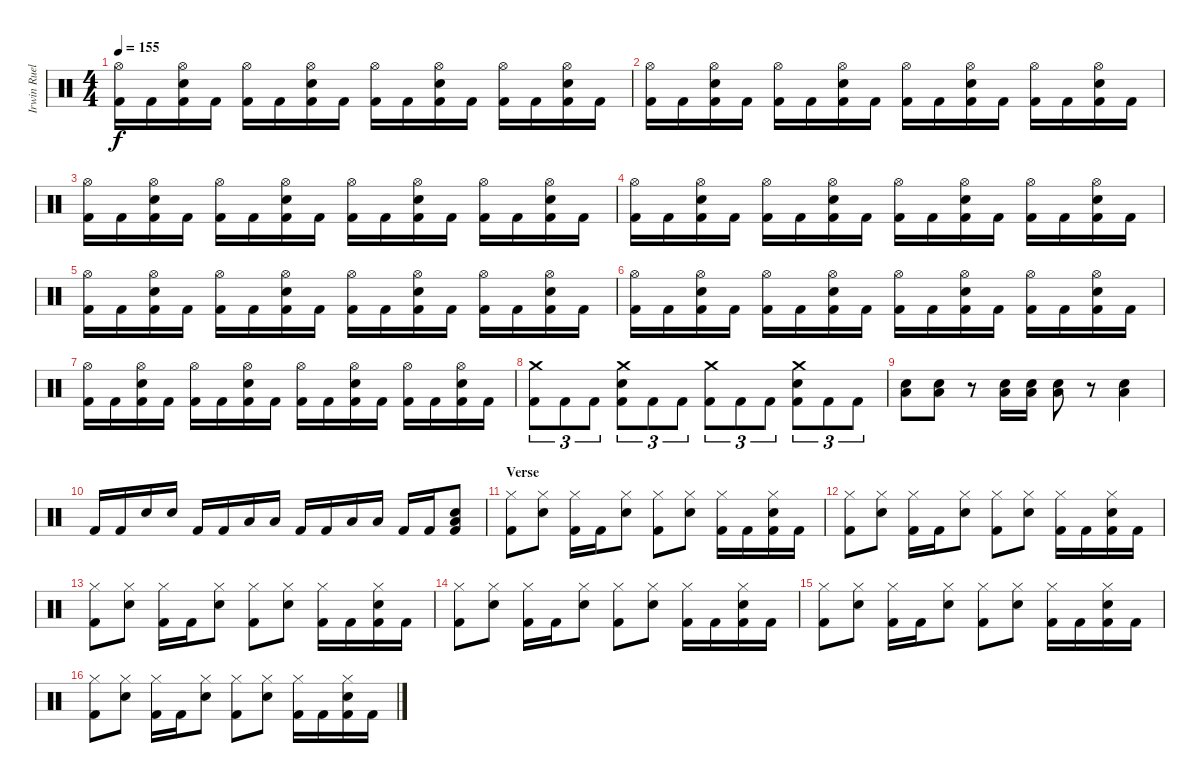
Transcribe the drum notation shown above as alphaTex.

\track ("Irwin Ruelas" "Irwin Ruel") {instrument percussion}
\staff {score}
\articulation defaults
\ts (4 4)
\tempo 155
\clef neutral
\ks c
("Hi-Hat (open)" "Kick (hit) 2").16{dy f} "Kick (hit) 2".16 ("Hi-Hat (open)" "Electric Snare (hit)" "Kick (hit) 2").16 "Kick (hit) 2".16 ("Hi-Hat (open)" "Kick (hit) 2").16 "Kick (hit) 2".16 ("Hi-Hat (open)" "Electric Snare (hit)" "Kick (hit) 2").16 "Kick (hit) 2".16 ("Hi-Hat (open)" "Kick (hit) 2").16 "Kick (hit) 2".16 ("Hi-Hat (open)" "Electric Snare (hit)" "Kick (hit) 2").16 "Kick (hit) 2".16 ("Hi-Hat (open)" "Kick (hit) 2").16 "Kick (hit) 2".16 ("Hi-Hat (open)" "Electric Snare (hit)" "Kick (hit) 2").16 "Kick (hit) 2".16 |
("Hi-Hat (open)" "Kick (hit) 2").16 "Kick (hit) 2".16 ("Hi-Hat (open)" "Electric Snare (hit)" "Kick (hit) 2").16 "Kick (hit) 2".16 ("Hi-Hat (open)" "Kick (hit) 2").16 "Kick (hit) 2".16 ("Hi-Hat (open)" "Electric Snare (hit)" "Kick (hit) 2").16 "Kick (hit) 2".16 ("Hi-Hat (open)" "Kick (hit) 2").16 "Kick (hit) 2".16 ("Hi-Hat (open)" "Electric Snare (hit)" "Kick (hit) 2").16 "Kick (hit) 2".16 ("Hi-Hat (open)" "Kick (hit) 2").16 "Kick (hit) 2".16 ("Hi-Hat (open)" "Electric Snare (hit)" "Kick (hit) 2").16 "Kick (hit) 2".16 |
("Hi-Hat (open)" "Kick (hit) 2").16 "Kick (hit) 2".16 ("Hi-Hat (open)" "Electric Snare (hit)" "Kick (hit) 2").16 "Kick (hit) 2".16 ("Hi-Hat (open)" "Kick (hit) 2").16 "Kick (hit) 2".16 ("Hi-Hat (open)" "Electric Snare (hit)" "Kick (hit) 2").16 "Kick (hit) 2".16 ("Hi-Hat (open)" "Kick (hit) 2").16 "Kick (hit) 2".16 ("Hi-Hat (open)" "Electric Snare (hit)" "Kick (hit) 2").16 "Kick (hit) 2".16 ("Hi-Hat (open)" "Kick (hit) 2").16 "Kick (hit) 2".16 ("Hi-Hat (open)" "Electric Snare (hit)" "Kick (hit) 2").16 "Kick (hit) 2".16 |
("Hi-Hat (open)" "Kick (hit) 2").16 "Kick (hit) 2".16 ("Hi-Hat (open)" "Electric Snare (hit)" "Kick (hit) 2").16 "Kick (hit) 2".16 ("Hi-Hat (open)" "Kick (hit) 2").16 "Kick (hit) 2".16 ("Hi-Hat (open)" "Electric Snare (hit)" "Kick (hit) 2").16 "Kick (hit) 2".16 ("Hi-Hat (open)" "Kick (hit) 2").16 "Kick (hit) 2".16 ("Hi-Hat (open)" "Electric Snare (hit)" "Kick (hit) 2").16 "Kick (hit) 2".16 ("Hi-Hat (open)" "Kick (hit) 2").16 "Kick (hit) 2".16 ("Hi-Hat (open)" "Electric Snare (hit)" "Kick (hit) 2").16 "Kick (hit) 2".16 |
("Hi-Hat (open)" "Kick (hit) 2").16 "Kick (hit) 2".16 ("Hi-Hat (open)" "Electric Snare (hit)" "Kick (hit) 2").16 "Kick (hit) 2".16 ("Hi-Hat (open)" "Kick (hit) 2").16 "Kick (hit) 2".16 ("Hi-Hat (open)" "Electric Snare (hit)" "Kick (hit) 2").16 "Kick (hit) 2".16 ("Hi-Hat (open)" "Kick (hit) 2").16 "Kick (hit) 2".16 ("Hi-Hat (open)" "Electric Snare (hit)" "Kick (hit) 2").16 "Kick (hit) 2".16 ("Hi-Hat (open)" "Kick (hit) 2").16 "Kick (hit) 2".16 ("Hi-Hat (open)" "Electric Snare (hit)" "Kick (hit) 2").16 "Kick (hit) 2".16 |
("Hi-Hat (open)" "Kick (hit) 2").16 "Kick (hit) 2".16 ("Hi-Hat (open)" "Electric Snare (hit)" "Kick (hit) 2").16 "Kick (hit) 2".16 ("Hi-Hat (open)" "Kick (hit) 2").16 "Kick (hit) 2".16 ("Hi-Hat (open)" "Electric Snare (hit)" "Kick (hit) 2").16 "Kick (hit) 2".16 ("Hi-Hat (open)" "Kick (hit) 2").16 "Kick (hit) 2".16 ("Hi-Hat (open)" "Electric Snare (hit)" "Kick (hit) 2").16 "Kick (hit) 2".16 ("Hi-Hat (open)" "Kick (hit) 2").16 "Kick (hit) 2".16 ("Hi-Hat (open)" "Electric Snare (hit)" "Kick (hit) 2").16 "Kick (hit) 2".16 |
("Hi-Hat (open)" "Kick (hit) 2").16 "Kick (hit) 2".16 ("Hi-Hat (open)" "Electric Snare (hit)" "Kick (hit) 2").16 "Kick (hit) 2".16 ("Hi-Hat (open)" "Kick (hit) 2").16 "Kick (hit) 2".16 ("Hi-Hat (open)" "Electric Snare (hit)" "Kick (hit) 2").16 "Kick (hit) 2".16 ("Hi-Hat (open)" "Kick (hit) 2").16 "Kick (hit) 2".16 ("Hi-Hat (open)" "Electric Snare (hit)" "Kick (hit) 2").16 "Kick (hit) 2".16 ("Hi-Hat (open)" "Kick (hit) 2").16 "Kick (hit) 2".16 ("Hi-Hat (open)" "Electric Snare (hit)" "Kick (hit) 2").16 "Kick (hit) 2".16 |
("Crash medium (hit)" "Kick (hit) 2").8{tu (3 2)} "Kick (hit) 2".8{tu (3 2)} "Kick (hit) 2".8{tu (3 2)} ("Crash medium (hit)" "Electric Snare (hit)" "Kick (hit) 2").8{tu (3 2)} "Kick (hit) 2".8{tu (3 2)} "Kick (hit) 2".8{tu (3 2)} ("Crash medium (hit)" "Kick (hit) 2").8{tu (3 2)} "Kick (hit) 2".8{tu (3 2)} "Kick (hit) 2".8{tu (3 2)} ("Crash medium (hit)" "Electric Snare (hit)" "Kick (hit) 2").8{tu (3 2)} "Kick (hit) 2".8{tu (3 2)} "Kick (hit) 2".8{tu (3 2)} |
("Electric Snare (hit)" "Low Floor Tom (hit)").8 ("Electric Snare (hit)" "Low Floor Tom (hit)").8 r.8 ("Electric Snare (hit)" "Low Floor Tom (hit)").16 ("Electric Snare (hit)" "Low Floor Tom (hit)").16 ("Electric Snare (hit)" "Low Floor Tom (hit)").8 r.8 ("Electric Snare (hit)" "Low Floor Tom (hit)").4 |
"Kick (hit) 2".16 "Kick (hit) 2".16 "Electric Snare (hit)".16 "Electric Snare (hit)".16 "Kick (hit) 2".16 "Kick (hit) 2".16 "Low Tom (hit)".16 "Low Tom (hit)".16 "Kick (hit) 2".16 "Kick (hit) 2".16 "Low Floor Tom (hit)".16 "Low Floor Tom (hit)".16 "Kick (hit) 2".16 "Kick (hit) 2".16 ("Electric Snare (hit)" "Low Floor Tom (hit)" "Kick (hit) 2").8 |
\section ("" "Verse")
("Hi-Hat (closed)" "Kick (hit) 2").8 ("Hi-Hat (closed)" "Electric Snare (hit)").8 ("Hi-Hat (closed)" "Kick (hit) 2").16 "Kick (hit) 2".16 ("Hi-Hat (closed)" "Electric Snare (hit)").8 ("Hi-Hat (closed)" "Kick (hit) 2").8 ("Hi-Hat (closed)" "Electric Snare (hit)").8 ("Hi-Hat (closed)" "Kick (hit) 2").16 "Kick (hit) 2".16 ("Hi-Hat (closed)" "Electric Snare (hit)" "Kick (hit) 2").16 "Kick (hit) 2".16 |
("Hi-Hat (closed)" "Kick (hit) 2").8 ("Hi-Hat (closed)" "Electric Snare (hit)").8 ("Hi-Hat (closed)" "Kick (hit) 2").16 "Kick (hit) 2".16 ("Hi-Hat (closed)" "Electric Snare (hit)").8 ("Hi-Hat (closed)" "Kick (hit) 2").8 ("Hi-Hat (closed)" "Electric Snare (hit)").8 ("Hi-Hat (closed)" "Kick (hit) 2").16 "Kick (hit) 2".16 ("Hi-Hat (closed)" "Electric Snare (hit)" "Kick (hit) 2").16 "Kick (hit) 2".16 |
("Hi-Hat (closed)" "Kick (hit) 2").8 ("Hi-Hat (closed)" "Electric Snare (hit)").8 ("Hi-Hat (closed)" "Kick (hit) 2").16 "Kick (hit) 2".16 ("Hi-Hat (closed)" "Electric Snare (hit)").8 ("Hi-Hat (closed)" "Kick (hit) 2").8 ("Hi-Hat (closed)" "Electric Snare (hit)").8 ("Hi-Hat (closed)" "Kick (hit) 2").16 "Kick (hit) 2".16 ("Hi-Hat (closed)" "Electric Snare (hit)" "Kick (hit) 2").16 "Kick (hit) 2".16 |
("Hi-Hat (closed)" "Kick (hit) 2").8 ("Hi-Hat (closed)" "Electric Snare (hit)").8 ("Hi-Hat (closed)" "Kick (hit) 2").16 "Kick (hit) 2".16 ("Hi-Hat (closed)" "Electric Snare (hit)").8 ("Hi-Hat (closed)" "Kick (hit) 2").8 ("Hi-Hat (closed)" "Electric Snare (hit)").8 ("Hi-Hat (closed)" "Kick (hit) 2").16 "Kick (hit) 2".16 ("Hi-Hat (closed)" "Electric Snare (hit)" "Kick (hit) 2").16 "Kick (hit) 2".16 |
("Hi-Hat (closed)" "Kick (hit) 2").8 ("Hi-Hat (closed)" "Electric Snare (hit)").8 ("Hi-Hat (closed)" "Kick (hit) 2").16 "Kick (hit) 2".16 ("Hi-Hat (closed)" "Electric Snare (hit)").8 ("Hi-Hat (closed)" "Kick (hit) 2").8 ("Hi-Hat (closed)" "Electric Snare (hit)").8 ("Hi-Hat (closed)" "Kick (hit) 2").16 "Kick (hit) 2".16 ("Hi-Hat (closed)" "Electric Snare (hit)" "Kick (hit) 2").16 "Kick (hit) 2".16 |
("Hi-Hat (closed)" "Kick (hit) 2").8 ("Hi-Hat (closed)" "Electric Snare (hit)").8 ("Hi-Hat (closed)" "Kick (hit) 2").16 "Kick (hit) 2".16 ("Hi-Hat (closed)" "Electric Snare (hit)").8 ("Hi-Hat (closed)" "Kick (hit) 2").8 ("Hi-Hat (closed)" "Electric Snare (hit)").8 ("Hi-Hat (closed)" "Kick (hit) 2").16 "Kick (hit) 2".16 ("Hi-Hat (closed)" "Electric Snare (hit)" "Kick (hit) 2").16 "Kick (hit) 2".16
